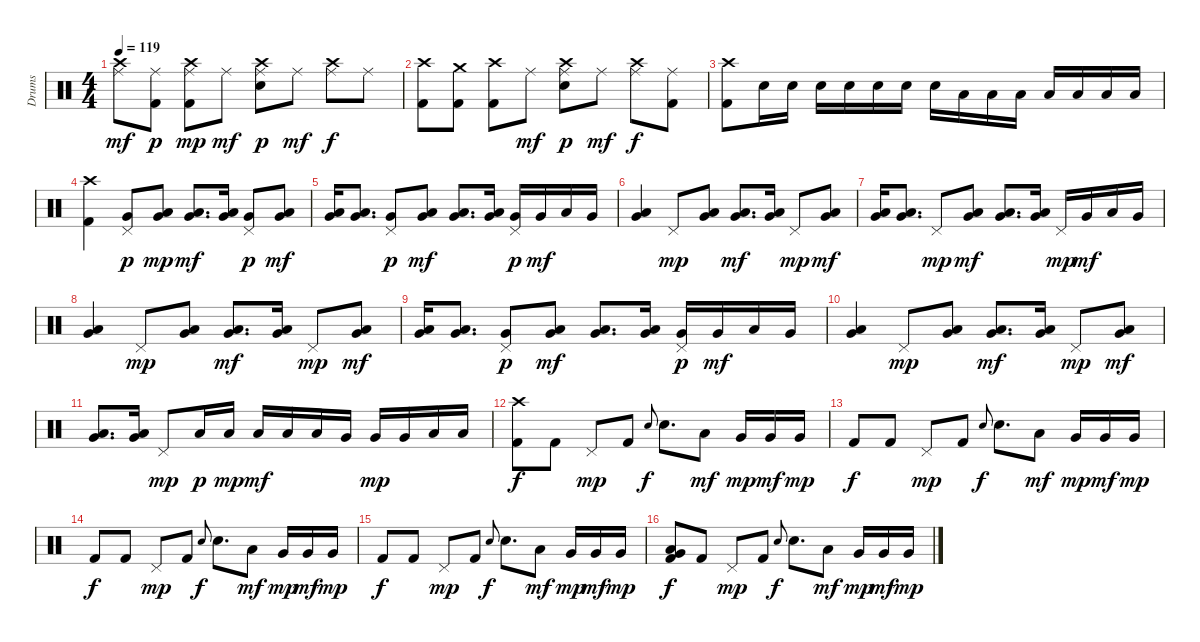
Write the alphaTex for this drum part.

\track ("Drums" "Drums") {instrument percussion}
\staff {score}
\articulation defaults
\ts (4 4)
\tempo 119
\clef neutral
\ks c
("Crash high (hit)" "Ride (middle)").8{dy mf} ("Ride (middle)" "Kick (hit) 2").8{dy p} ("Crash high (hit)" "Ride (middle)" "Kick (hit) 2").8{dy mp} "Ride (middle)".8{dy mf} ("Crash high (hit)" "Ride (middle)" "Electric Snare (hit)").8{dy p} "Ride (middle)".8{dy mf} ("Crash high (hit)" "Ride (middle)").8{dy f} "Ride (middle)".8 |
("Crash high (hit)" "Kick (hit) 2").8 ("Crash medium (hit)" "Kick (hit) 2").8 ("Crash high (hit)" "Kick (hit) 2").8 "Ride (middle)".8{dy mf} ("Crash high (hit)" "Ride (middle)" "Electric Snare (hit)").8{dy p} "Ride (middle)".8{dy mf} ("Crash high (hit)" "Ride (middle)").8{dy f} ("Ride (middle)" "Kick (hit) 2").8 |
("Crash high (hit)" "Kick (hit) 2").8 "Electric Snare (hit)".16 "Electric Snare (hit)".16 "Electric Snare (hit)".16 "Electric Snare (hit)".16 "Electric Snare (hit)".16 "Electric Snare (hit)".16 "Electric Snare (hit)".16 "Low Tom (hit)".16 "Low Tom (hit)".16 "Low Tom (hit)".16 "Low Tom (hit)".16 "Low Floor Tom (hit)".16 "Low Floor Tom (hit)".16 "Low Floor Tom (hit)".16 |
("Crash high (hit)" "Kick (hit) 2").4 ("Pedal Hi-Hat (hit)" "Very Low Tom (hit)").8{dy p} ("Low Tom (hit)" "Very Low Tom (hit)").8{dy mp} ("Low Tom (hit)" "Very Low Tom (hit)").8{d dy mf} ("Low Tom (hit)" "Very Low Tom (hit)").16 ("Pedal Hi-Hat (hit)" "Very Low Tom (hit)").8{dy p} ("Low Tom (hit)" "Very Low Tom (hit)").8{dy mf} |
("Low Tom (hit)" "Very Low Tom (hit)").16 ("Low Tom (hit)" "Very Low Tom (hit)").8{d} ("Pedal Hi-Hat (hit)" "Very Low Tom (hit)").8{dy p} ("Low Tom (hit)" "Very Low Tom (hit)").8{dy mf} ("Low Tom (hit)" "Very Low Tom (hit)").8{d} ("Low Tom (hit)" "Very Low Tom (hit)").16 ("Pedal Hi-Hat (hit)" "Very Low Tom (hit)").16{dy p} "Very Low Tom (hit)".16{dy mf} "Low Tom (hit)".16 "Very Low Tom (hit)".16 |
("Low Tom (hit)" "Very Low Tom (hit)").4 "Pedal Hi-Hat (hit)".8{dy mp} ("Low Tom (hit)" "Very Low Tom (hit)").8 ("Low Tom (hit)" "Very Low Tom (hit)").8{d dy mf} ("Low Tom (hit)" "Very Low Tom (hit)").16 "Pedal Hi-Hat (hit)".8{dy mp} ("Low Tom (hit)" "Very Low Tom (hit)").8{dy mf} |
("Low Tom (hit)" "Very Low Tom (hit)").16 ("Low Tom (hit)" "Very Low Tom (hit)").8{d} "Pedal Hi-Hat (hit)".8{dy mp} ("Low Tom (hit)" "Very Low Tom (hit)").8{dy mf} ("Low Tom (hit)" "Very Low Tom (hit)").8{d} ("Low Tom (hit)" "Very Low Tom (hit)").16 "Pedal Hi-Hat (hit)".16{dy mp} "Very Low Tom (hit)".16{dy mf} "Low Tom (hit)".16 "Very Low Tom (hit)".16 |
("Low Tom (hit)" "Very Low Tom (hit)").4 "Pedal Hi-Hat (hit)".8{dy mp} ("Low Tom (hit)" "Very Low Tom (hit)").8 ("Low Tom (hit)" "Very Low Tom (hit)").8{d dy mf} ("Low Tom (hit)" "Very Low Tom (hit)").16 "Pedal Hi-Hat (hit)".8{dy mp} ("Low Tom (hit)" "Very Low Tom (hit)").8{dy mf} |
("Low Tom (hit)" "Very Low Tom (hit)").16 ("Low Tom (hit)" "Very Low Tom (hit)").8{d} ("Pedal Hi-Hat (hit)" "Very Low Tom (hit)").8{dy p} ("Low Tom (hit)" "Very Low Tom (hit)").8{dy mf} ("Low Tom (hit)" "Very Low Tom (hit)").8{d} ("Low Tom (hit)" "Very Low Tom (hit)").16 ("Pedal Hi-Hat (hit)" "Very Low Tom (hit)").16{dy p} "Very Low Tom (hit)".16{dy mf} "Low Tom (hit)".16 "Very Low Tom (hit)".16 |
("Low Tom (hit)" "Very Low Tom (hit)").4 "Pedal Hi-Hat (hit)".8{dy mp} ("Low Tom (hit)" "Very Low Tom (hit)").8 ("Low Tom (hit)" "Very Low Tom (hit)").8{d dy mf} ("Low Tom (hit)" "Very Low Tom (hit)").16 "Pedal Hi-Hat (hit)".8{dy mp} ("Low Tom (hit)" "Very Low Tom (hit)").8{dy mf} |
("Low Tom (hit)" "Very Low Tom (hit)").8{d} ("Low Tom (hit)" "Very Low Tom (hit)").16 "Pedal Hi-Hat (hit)".8{dy mp} "Low Tom (hit)".16{dy p} "Low Tom (hit)".16{dy mp} "Low Tom (hit)".16{dy mf} "Low Tom (hit)".16 "Low Tom (hit)".16 "Very Low Tom (hit)".16 "Very Low Tom (hit)".16{dy mp} "Very Low Tom (hit)".16 "Low Floor Tom (hit)".16 "Low Floor Tom (hit)".16 |
("Crash high (hit)" "Kick (hit) 2").8{dy f} "Kick (hit) 2".8 "Pedal Hi-Hat (hit)".8{dy mp} "Kick (hit) 2".8 "Electric Snare (hit)".8{gr onbeat dy f} "Electric Snare (hit)".8{d} "Low Tom (hit)".8{dy mf} "Very Low Tom (hit)".16{dy mp} "Very Low Tom (hit)".16{dy mf} "Very Low Tom (hit)".16{dy mp} |
"Kick (hit) 2".8{dy f} "Kick (hit) 2".8 "Pedal Hi-Hat (hit)".8{dy mp} "Kick (hit) 2".8 "Electric Snare (hit)".8{gr onbeat dy f} "Electric Snare (hit)".8{d} "Low Tom (hit)".8{dy mf} "Very Low Tom (hit)".16{dy mp} "Very Low Tom (hit)".16{dy mf} "Very Low Tom (hit)".16{dy mp} |
"Kick (hit) 2".8{dy f} "Kick (hit) 2".8 "Pedal Hi-Hat (hit)".8{dy mp} "Kick (hit) 2".8 "Electric Snare (hit)".8{gr onbeat dy f} "Electric Snare (hit)".8{d} "Low Tom (hit)".8{dy mf} "Very Low Tom (hit)".16{dy mp} "Very Low Tom (hit)".16{dy mf} "Very Low Tom (hit)".16{dy mp} |
"Kick (hit) 2".8{dy f} "Kick (hit) 2".8 "Pedal Hi-Hat (hit)".8{dy mp} "Kick (hit) 2".8 "Electric Snare (hit)".8{gr onbeat dy f} "Electric Snare (hit)".8{d} "Low Tom (hit)".8{dy mf} "Very Low Tom (hit)".16{dy mp} "Very Low Tom (hit)".16{dy mf} "Very Low Tom (hit)".16{dy mp} |
("Low Floor Tom (hit)" "Very Low Tom (hit)" "Kick (hit) 2").8{dy f} "Kick (hit) 2".8 "Pedal Hi-Hat (hit)".8{dy mp} "Kick (hit) 2".8 "Electric Snare (hit)".8{gr onbeat dy f} "Electric Snare (hit)".8{d} "Low Tom (hit)".8{dy mf} "Very Low Tom (hit)".16{dy mp} "Very Low Tom (hit)".16{dy mf} "Very Low Tom (hit)".16{dy mp}
